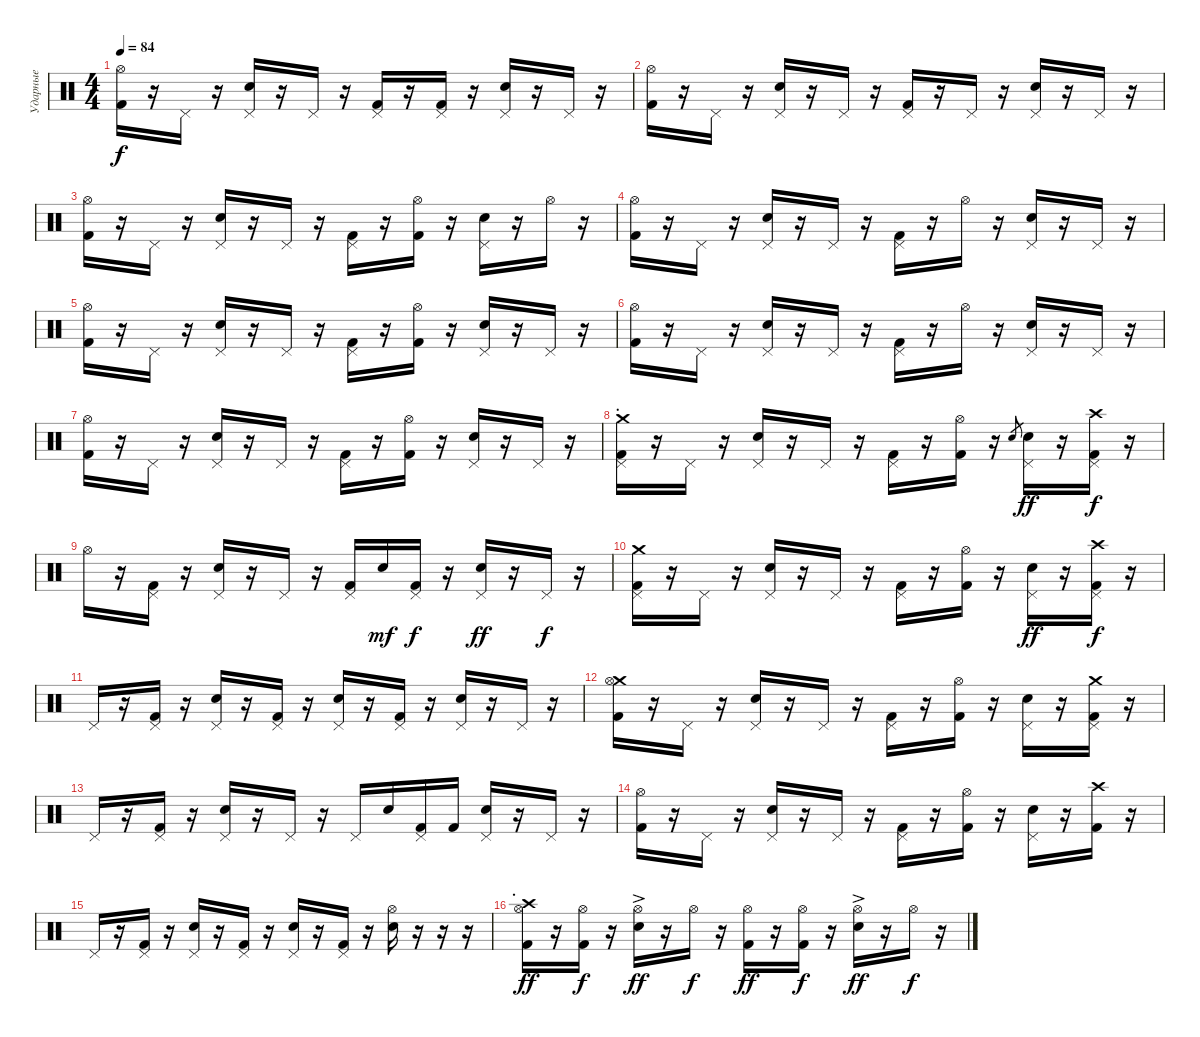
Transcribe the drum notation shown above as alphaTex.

\track ("Ударные" "Ударные") {instrument percussion}
\staff {score}
\articulation defaults
\ts (4 4)
\tempo 84
\clef neutral
\ks c
("Hi-Hat (open)" "Kick (hit) 2").16{dy f} r.16 "Pedal Hi-Hat (hit)".16 r.16 ("Pedal Hi-Hat (hit)" "Electric Snare (hit)").16 r.16 "Pedal Hi-Hat (hit)".16 r.16 ("Pedal Hi-Hat (hit)" "Kick (hit) 2").16 r.16 ("Pedal Hi-Hat (hit)" "Kick (hit) 2").16 r.16 ("Pedal Hi-Hat (hit)" "Electric Snare (hit)").16 r.16 "Pedal Hi-Hat (hit)".16 r.16 |
("Hi-Hat (open)" "Kick (hit) 2").16 r.16 "Pedal Hi-Hat (hit)".16 r.16 ("Pedal Hi-Hat (hit)" "Electric Snare (hit)").16 r.16 "Pedal Hi-Hat (hit)".16 r.16 ("Pedal Hi-Hat (hit)" "Kick (hit) 2").16 r.16 "Pedal Hi-Hat (hit)".16 r.16 ("Pedal Hi-Hat (hit)" "Electric Snare (hit)").16 r.16 "Pedal Hi-Hat (hit)".16 r.16 |
("Hi-Hat (open)" "Kick (hit) 2").16 r.16 "Pedal Hi-Hat (hit)".16 r.16 ("Pedal Hi-Hat (hit)" "Electric Snare (hit)").16 r.16 "Pedal Hi-Hat (hit)".16 r.16 ("Pedal Hi-Hat (hit)" "Kick (hit) 2").16 r.16 ("Hi-Hat (open)" "Kick (hit) 2").16 r.16 ("Pedal Hi-Hat (hit)" "Electric Snare (hit)").16 r.16 "Hi-Hat (open)".16 r.16 |
("Hi-Hat (open)" "Kick (hit) 2").16 r.16 "Pedal Hi-Hat (hit)".16 r.16 ("Pedal Hi-Hat (hit)" "Electric Snare (hit)").16 r.16 "Pedal Hi-Hat (hit)".16 r.16 ("Pedal Hi-Hat (hit)" "Kick (hit) 2").16 r.16 "Hi-Hat (open)".16 r.16 ("Pedal Hi-Hat (hit)" "Electric Snare (hit)").16 r.16 "Pedal Hi-Hat (hit)".16 r.16 |
("Hi-Hat (open)" "Kick (hit) 2").16 r.16 "Pedal Hi-Hat (hit)".16 r.16 ("Pedal Hi-Hat (hit)" "Electric Snare (hit)").16 r.16 "Pedal Hi-Hat (hit)".16 r.16 ("Pedal Hi-Hat (hit)" "Kick (hit) 2").16 r.16 ("Hi-Hat (open)" "Kick (hit) 2").16 r.16 ("Pedal Hi-Hat (hit)" "Electric Snare (hit)").16 r.16 "Pedal Hi-Hat (hit)".16 r.16 |
("Hi-Hat (open)" "Kick (hit) 2").16 r.16 "Pedal Hi-Hat (hit)".16 r.16 ("Pedal Hi-Hat (hit)" "Electric Snare (hit)").16 r.16 "Pedal Hi-Hat (hit)".16 r.16 ("Pedal Hi-Hat (hit)" "Kick (hit) 2").16 r.16 "Hi-Hat (open)".16 r.16 ("Pedal Hi-Hat (hit)" "Electric Snare (hit)").16 r.16 "Pedal Hi-Hat (hit)".16 r.16 |
("Hi-Hat (open)" "Kick (hit) 2").16 r.16 "Pedal Hi-Hat (hit)".16 r.16 ("Pedal Hi-Hat (hit)" "Electric Snare (hit)").16 r.16 "Pedal Hi-Hat (hit)".16 r.16 ("Pedal Hi-Hat (hit)" "Kick (hit) 2").16 r.16 ("Hi-Hat (open)" "Kick (hit) 2").16 r.16 ("Pedal Hi-Hat (hit)" "Electric Snare (hit)").16 r.16 "Pedal Hi-Hat (hit)".16 r.16 |
\section ("" ".")
("Crash medium (hit)" "Pedal Hi-Hat (hit)" "Kick (hit) 2").16 r.16 "Pedal Hi-Hat (hit)".16 r.16 ("Pedal Hi-Hat (hit)" "Electric Snare (hit)").16 r.16 "Pedal Hi-Hat (hit)".16 r.16 ("Pedal Hi-Hat (hit)" "Kick (hit) 2").16 r.16 ("Hi-Hat (open)" "Kick (hit) 2").16 r.16 "Electric Snare (hit)".8{gr} ("Pedal Hi-Hat (hit)" "Electric Snare (hit)").16{dy ff} r.16 ("Crash high (hit)" "Pedal Hi-Hat (hit)" "Kick (hit) 2").16{dy f} r.16 |
"Hi-Hat (open)".16 r.16 ("Pedal Hi-Hat (hit)" "Kick (hit) 2").16 r.16 ("Pedal Hi-Hat (hit)" "Electric Snare (hit)").16 r.16 "Pedal Hi-Hat (hit)".16 r.16 ("Pedal Hi-Hat (hit)" "Kick (hit) 2").16 "Electric Snare (hit)".16{dy mf} ("Pedal Hi-Hat (hit)" "Kick (hit) 2").16{dy f} r.16 ("Pedal Hi-Hat (hit)" "Electric Snare (hit)").16{dy ff} r.16 "Pedal Hi-Hat (hit)".16{dy f} r.16 |
("Crash medium (hit)" "Pedal Hi-Hat (hit)" "Kick (hit) 2").16 r.16 "Pedal Hi-Hat (hit)".16 r.16 ("Pedal Hi-Hat (hit)" "Electric Snare (hit)").16 r.16 "Pedal Hi-Hat (hit)".16 r.16 ("Pedal Hi-Hat (hit)" "Kick (hit) 2").16 r.16 ("Hi-Hat (open)" "Kick (hit) 2").16 r.16 ("Pedal Hi-Hat (hit)" "Electric Snare (hit)").16{dy ff} r.16 ("Crash high (hit)" "Pedal Hi-Hat (hit)" "Kick (hit) 2").16{dy f} r.16 |
"Pedal Hi-Hat (hit)".16 r.16 ("Pedal Hi-Hat (hit)" "Kick (hit) 2").16 r.16 ("Pedal Hi-Hat (hit)" "Electric Snare (hit)").16 r.16 ("Pedal Hi-Hat (hit)" "Kick (hit) 2").16 r.16 ("Pedal Hi-Hat (hit)" "Electric Snare (hit)").16 r.16 ("Pedal Hi-Hat (hit)" "Kick (hit) 2").16 r.16 ("Pedal Hi-Hat (hit)" "Electric Snare (hit)").16 r.16 "Pedal Hi-Hat (hit)".16 r.16 |
("Crash medium (hit)" "Hi-Hat (open)" "Kick (hit) 2").16 r.16 "Pedal Hi-Hat (hit)".16 r.16 ("Pedal Hi-Hat (hit)" "Electric Snare (hit)").16 r.16 "Pedal Hi-Hat (hit)".16 r.16 ("Pedal Hi-Hat (hit)" "Kick (hit) 2").16 r.16 ("Hi-Hat (open)" "Kick (hit) 2").16 r.16 ("Pedal Hi-Hat (hit)" "Electric Snare (hit)").16 r.16 ("Crash medium (hit)" "Pedal Hi-Hat (hit)" "Kick (hit) 2").16 r.16 |
"Pedal Hi-Hat (hit)".16 r.16 ("Pedal Hi-Hat (hit)" "Kick (hit) 2").16 r.16 ("Pedal Hi-Hat (hit)" "Electric Snare (hit)").16 r.16 "Pedal Hi-Hat (hit)".16 r.16 "Pedal Hi-Hat (hit)".16 "Electric Snare (hit)".16 ("Pedal Hi-Hat (hit)" "Kick (hit) 2").16 "Kick (hit) 2".16 ("Pedal Hi-Hat (hit)" "Electric Snare (hit)").16 r.16 "Pedal Hi-Hat (hit)".16 r.16 |
("Hi-Hat (open)" "Kick (hit) 2").16 r.16 "Pedal Hi-Hat (hit)".16 r.16 ("Pedal Hi-Hat (hit)" "Electric Snare (hit)").16 r.16 "Pedal Hi-Hat (hit)".16 r.16 ("Pedal Hi-Hat (hit)" "Kick (hit) 2").16 r.16 ("Hi-Hat (open)" "Kick (hit) 2").16 r.16 ("Pedal Hi-Hat (hit)" "Electric Snare (hit)").16 r.16 ("Crash high (hit)" "Kick (hit) 2").16 r.16 |
"Pedal Hi-Hat (hit)".16 r.16 ("Pedal Hi-Hat (hit)" "Kick (hit) 2").16 r.16 ("Pedal Hi-Hat (hit)" "Electric Snare (hit)").16 r.16 ("Pedal Hi-Hat (hit)" "Kick (hit) 2").16 r.16 ("Pedal Hi-Hat (hit)" "Electric Snare (hit)").16 r.16 ("Pedal Hi-Hat (hit)" "Kick (hit) 2").16 r.16 ("Hi-Hat (open)" "Electric Snare (hit)").16 r.16 r.16 r.16 |
\section ("" ".")
("Crash high (hit)" "Hi-Hat (open)" "Kick (hit) 2").16{dy ff} r.16 ("Hi-Hat (open)" "Kick (hit) 2").16{dy f} r.16 ("Hi-Hat (open)"{ac} "Electric Snare (hit)").16{dy ff} r.16 "Hi-Hat (open)".16{dy f} r.16 ("Hi-Hat (open)" "Kick (hit) 2").16{dy ff} r.16 ("Hi-Hat (open)" "Kick (hit) 2").16{dy f} r.16 ("Hi-Hat (open)"{ac} "Electric Snare (hit)").16{dy ff} r.16 "Hi-Hat (open)".16{dy f} r.16
